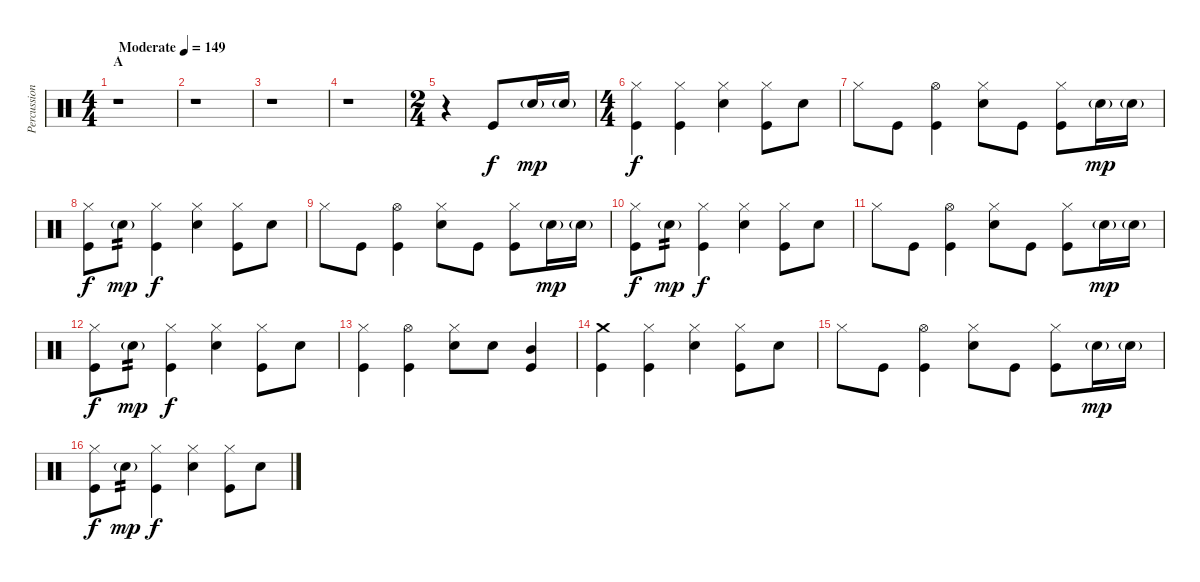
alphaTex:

\track ("Percussions" "Percussion") {instrument percussion}
\staff {score}
\articulation defaults
\ts (4 4)
\section ("" "A")
\tempo (149 "Moderate")
\clef neutral
\ks c
r.1{dy f} |
r.1 |
r.1 |
r.1 |
\ts (2 4)
r.4 "Kick (hit)".8 "Electric Snare (hit)"{g}.16{dy mp} "Electric Snare (hit)"{g}.16 |
\ts (4 4)
("Hi-Hat (closed)" "Kick (hit)").4{dy f} ("Hi-Hat (closed)" "Kick (hit)").4 ("Hi-Hat (closed)" "Electric Snare (hit)").4 ("Hi-Hat (closed)" "Kick (hit)").8 "Electric Snare (hit)".8 |
"Hi-Hat (closed)".8 "Kick (hit)".8 ("Hi-Hat (open)" "Kick (hit)").4 ("Hi-Hat (closed)" "Electric Snare (hit)").8 "Kick (hit)".8 ("Hi-Hat (closed)" "Kick (hit)").8 "Electric Snare (hit)"{g}.16{dy mp} "Electric Snare (hit)"{g}.16 |
("Hi-Hat (closed)" "Kick (hit)").8{dy f} "Electric Snare (hit)"{g}.8{tp 2 dy mp} ("Hi-Hat (closed)" "Kick (hit)").4{dy f} ("Hi-Hat (closed)" "Electric Snare (hit)").4 ("Hi-Hat (closed)" "Kick (hit)").8 "Electric Snare (hit)".8 |
"Hi-Hat (closed)".8 "Kick (hit)".8 ("Hi-Hat (open)" "Kick (hit)").4 ("Hi-Hat (closed)" "Electric Snare (hit)").8 "Kick (hit)".8 ("Hi-Hat (closed)" "Kick (hit)").8 "Electric Snare (hit)"{g}.16{dy mp} "Electric Snare (hit)"{g}.16 |
("Hi-Hat (closed)" "Kick (hit)").8{dy f} "Electric Snare (hit)"{g}.8{tp 2 dy mp} ("Hi-Hat (closed)" "Kick (hit)").4{dy f} ("Hi-Hat (closed)" "Electric Snare (hit)").4 ("Hi-Hat (closed)" "Kick (hit)").8 "Electric Snare (hit)".8 |
"Hi-Hat (closed)".8 "Kick (hit)".8 ("Hi-Hat (open)" "Kick (hit)").4 ("Hi-Hat (closed)" "Electric Snare (hit)").8 "Kick (hit)".8 ("Hi-Hat (closed)" "Kick (hit)").8 "Electric Snare (hit)"{g}.16{dy mp} "Electric Snare (hit)"{g}.16 |
("Hi-Hat (closed)" "Kick (hit)").8{dy f} "Electric Snare (hit)"{g}.8{tp 2 dy mp} ("Hi-Hat (closed)" "Kick (hit)").4{dy f} ("Hi-Hat (closed)" "Electric Snare (hit)").4 ("Hi-Hat (closed)" "Kick (hit)").8 "Electric Snare (hit)".8 |
("Hi-Hat (closed)" "Kick (hit)").4 ("Hi-Hat (open)" "Kick (hit)").4 ("Hi-Hat (closed)" "Electric Snare (hit)").8 "Electric Snare (hit)".8 ("Mid Tom (hit)" "Kick (hit)").4 |
("Crash medium (hit)" "Kick (hit)").4 ("Hi-Hat (closed)" "Kick (hit)").4 ("Hi-Hat (closed)" "Electric Snare (hit)").4 ("Hi-Hat (closed)" "Kick (hit)").8 "Electric Snare (hit)".8 |
"Hi-Hat (closed)".8 "Kick (hit)".8 ("Hi-Hat (open)" "Kick (hit)").4 ("Hi-Hat (closed)" "Electric Snare (hit)").8 "Kick (hit)".8 ("Hi-Hat (closed)" "Kick (hit)").8 "Electric Snare (hit)"{g}.16{dy mp} "Electric Snare (hit)"{g}.16 |
("Hi-Hat (closed)" "Kick (hit)").8{dy f} "Electric Snare (hit)"{g}.8{tp 2 dy mp} ("Hi-Hat (closed)" "Kick (hit)").4{dy f} ("Hi-Hat (closed)" "Electric Snare (hit)").4 ("Hi-Hat (closed)" "Kick (hit)").8 "Electric Snare (hit)".8
